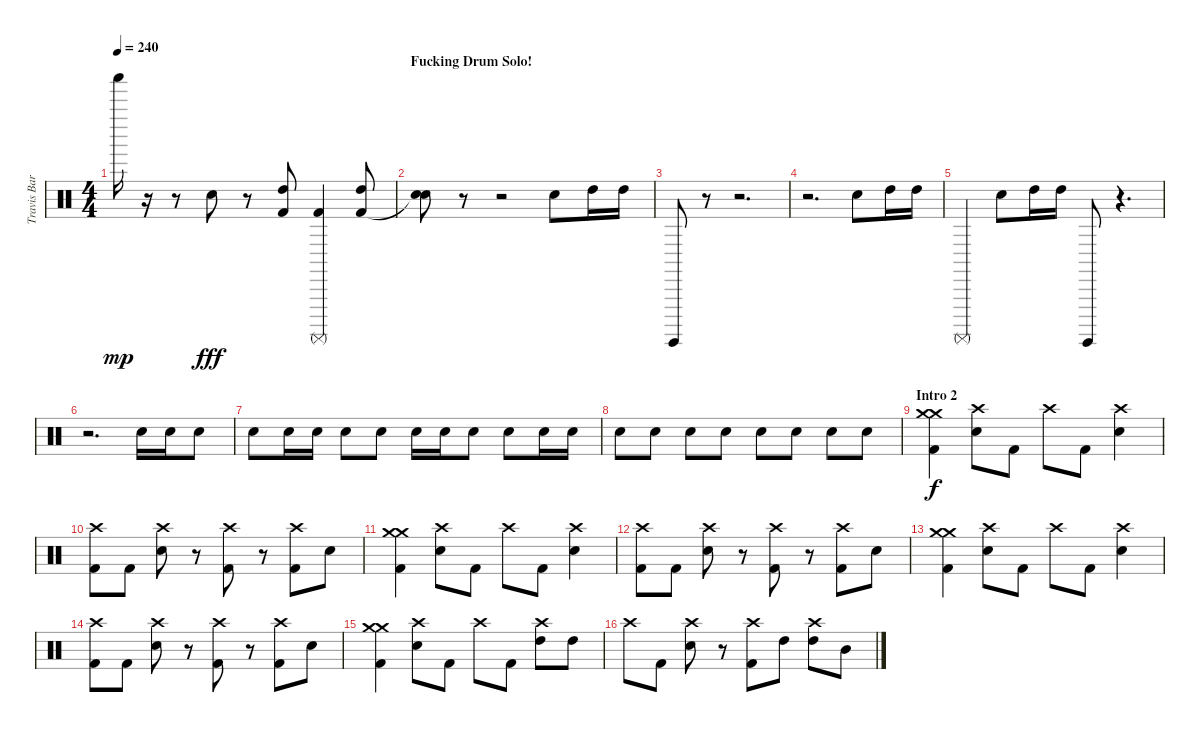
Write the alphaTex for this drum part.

\track ("Travis Barker - Drums" "Travis Bar") {instrument percussion}
\staff {score}
\articulation defaults
\ts (4 4)
\tempo 240
\clef neutral
\ks c "Shaker (hit)".16{dy mp}
r.16 r.8 "Electric Snare (hit)".8{dy fff} r.8 ("High Tom (hit)" "Kick (hit) 2").8 ("Surdo (mute)" "Kick (hit) 2").4 ("High Tom (hit)" "Kick (hit) 2").8 |
\section ("" "Fucking Drum Solo!")
("Electric Snare (hit)" "Snare (hit)"{t}).8 r.8 r.2 "Electric Snare (hit)".8 "High Tom (hit)".16 "High Tom (hit)".16 |
"Surdo (hit)".8 r.8 r.2{d} |
r.2{d} "Electric Snare (hit)".8 "High Tom (hit)".16 "High Tom (hit)".16 |
"Surdo (mute)".4 "Electric Snare (hit)".8 "High Tom (hit)".16 "High Tom (hit)".16 "Surdo (hit)".8 r.4{d} |
r.2{d} "Electric Snare (hit)".16 "Electric Snare (hit)".16 "Electric Snare (hit)".8 |
"Electric Snare (hit)".8 "Electric Snare (hit)".16 "Electric Snare (hit)".16 "Electric Snare (hit)".8 "Electric Snare (hit)".8 "Electric Snare (hit)".16 "Electric Snare (hit)".16 "Electric Snare (hit)".8 "Electric Snare (hit)".8 "Electric Snare (hit)".16 "Electric Snare (hit)".16 |
"Electric Snare (hit)".8 "Electric Snare (hit)".8 "Electric Snare (hit)".8 "Electric Snare (hit)".8 "Electric Snare (hit)".8 "Electric Snare (hit)".8 "Electric Snare (hit)".8 "Electric Snare (hit)".8 |
\section ("" "Intro 2")
("Crash medium (hit)" "Crash medium (hit)" "Kick (hit) 2").4{dy f} ("Crash high (hit)" "Electric Snare (hit)").8 "Kick (hit) 2".8 "Crash high (hit)".8 "Kick (hit) 2".8 ("Crash high (hit)" "Electric Snare (hit)").4 |
("Crash high (hit)" "Kick (hit) 2").8 "Kick (hit) 2".8 ("Crash high (hit)" "Electric Snare (hit)").8 r.8 ("Crash high (hit)" "Kick (hit) 2").8 r.8 ("Crash high (hit)" "Kick (hit) 2").8 "Electric Snare (hit)".8 |
("Crash medium (hit)" "Crash medium (hit)" "Kick (hit) 2").4 ("Crash high (hit)" "Electric Snare (hit)").8 "Kick (hit) 2".8 "Crash high (hit)".8 "Kick (hit) 2".8 ("Crash high (hit)" "Electric Snare (hit)").4 |
("Crash high (hit)" "Kick (hit) 2").8 "Kick (hit) 2".8 ("Crash high (hit)" "Electric Snare (hit)").8 r.8 ("Crash high (hit)" "Kick (hit) 2").8 r.8 ("Crash high (hit)" "Kick (hit) 2").8 "Electric Snare (hit)".8 |
("Crash medium (hit)" "Crash medium (hit)" "Kick (hit) 2").4 ("Crash high (hit)" "Electric Snare (hit)").8 "Kick (hit) 2".8 "Crash high (hit)".8 "Kick (hit) 2".8 ("Crash high (hit)" "Electric Snare (hit)").4 |
("Crash high (hit)" "Kick (hit) 2").8 "Kick (hit) 2".8 ("Crash high (hit)" "Electric Snare (hit)").8 r.8 ("Crash high (hit)" "Kick (hit) 2").8 r.8 ("Crash high (hit)" "Kick (hit) 2").8 "Electric Snare (hit)".8 |
("Crash medium (hit)" "Crash medium (hit)" "Kick (hit) 2").4 ("Crash high (hit)" "Electric Snare (hit)").8 "Kick (hit) 2".8 "Crash high (hit)".8 "Kick (hit) 2".8 ("Crash high (hit)" "High Tom (hit)").8 "High Tom (hit)".8 |
"Crash high (hit)".8 "Kick (hit) 2".8 ("Crash high (hit)" "Electric Snare (hit)").8 r.8 ("Crash high (hit)" "Kick (hit) 2").8 "High Tom (hit)".8 ("Crash high (hit)" "High Tom (hit)").8 "Mid Tom (hit)".8
